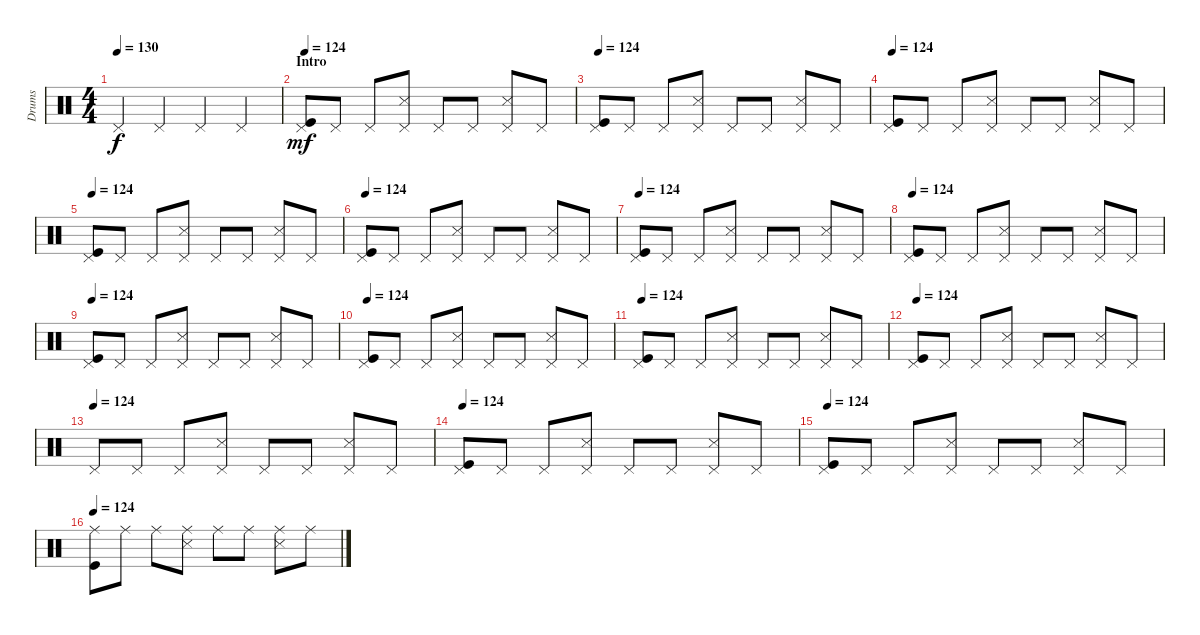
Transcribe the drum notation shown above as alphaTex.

\track ("Drums" "Drums") {instrument percussion}
\staff {score}
\articulation defaults
\ts (4 4)
\tempo 130
\tempo 124
\tempo 130
\clef neutral
\ks c "Pedal Hi-Hat (hit)".4{dy f} "Pedal Hi-Hat (hit)".4 "Pedal Hi-Hat (hit)".4 "Pedal Hi-Hat (hit)".4
|
\section ("" "Intro")
\tempo 124
("Pedal Hi-Hat (hit)" "Kick (hit)").8{dy mf} "Pedal Hi-Hat (hit)".8 "Pedal Hi-Hat (hit)".8 ("Pedal Hi-Hat (hit)" "Snare (side stick) 3").8 "Pedal Hi-Hat (hit)".8 "Pedal Hi-Hat (hit)".8 ("Pedal Hi-Hat (hit)" "Snare (side stick) 3").8 "Pedal Hi-Hat (hit)".8 |
\tempo 124
("Pedal Hi-Hat (hit)" "Kick (hit)").8 "Pedal Hi-Hat (hit)".8 "Pedal Hi-Hat (hit)".8 ("Pedal Hi-Hat (hit)" "Snare (side stick) 3").8 "Pedal Hi-Hat (hit)".8 "Pedal Hi-Hat (hit)".8 ("Pedal Hi-Hat (hit)" "Snare (side stick) 3").8 "Pedal Hi-Hat (hit)".8 |
\tempo 124
("Pedal Hi-Hat (hit)" "Kick (hit)").8 "Pedal Hi-Hat (hit)".8 "Pedal Hi-Hat (hit)".8 ("Pedal Hi-Hat (hit)" "Snare (side stick) 3").8 "Pedal Hi-Hat (hit)".8 "Pedal Hi-Hat (hit)".8 ("Pedal Hi-Hat (hit)" "Snare (side stick) 3").8 "Pedal Hi-Hat (hit)".8 |
\tempo 124
("Pedal Hi-Hat (hit)" "Kick (hit)").8 "Pedal Hi-Hat (hit)".8 "Pedal Hi-Hat (hit)".8 ("Pedal Hi-Hat (hit)" "Snare (side stick) 3").8 "Pedal Hi-Hat (hit)".8 "Pedal Hi-Hat (hit)".8 ("Pedal Hi-Hat (hit)" "Snare (side stick) 3").8 "Pedal Hi-Hat (hit)".8 |
\tempo 124
("Pedal Hi-Hat (hit)" "Kick (hit)").8 "Pedal Hi-Hat (hit)".8 "Pedal Hi-Hat (hit)".8 ("Pedal Hi-Hat (hit)" "Snare (side stick) 3").8 "Pedal Hi-Hat (hit)".8 "Pedal Hi-Hat (hit)".8 ("Pedal Hi-Hat (hit)" "Snare (side stick) 3").8 "Pedal Hi-Hat (hit)".8 |
\tempo 124
("Pedal Hi-Hat (hit)" "Kick (hit)").8 "Pedal Hi-Hat (hit)".8 "Pedal Hi-Hat (hit)".8 ("Pedal Hi-Hat (hit)" "Snare (side stick) 3").8 "Pedal Hi-Hat (hit)".8 "Pedal Hi-Hat (hit)".8 ("Pedal Hi-Hat (hit)" "Snare (side stick) 3").8 "Pedal Hi-Hat (hit)".8 |
\tempo 124
("Pedal Hi-Hat (hit)" "Kick (hit)").8 "Pedal Hi-Hat (hit)".8 "Pedal Hi-Hat (hit)".8 ("Pedal Hi-Hat (hit)" "Snare (side stick) 3").8 "Pedal Hi-Hat (hit)".8 "Pedal Hi-Hat (hit)".8 ("Pedal Hi-Hat (hit)" "Snare (side stick) 3").8 "Pedal Hi-Hat (hit)".8 |
\tempo 124
("Pedal Hi-Hat (hit)" "Kick (hit)").8 "Pedal Hi-Hat (hit)".8 "Pedal Hi-Hat (hit)".8 ("Pedal Hi-Hat (hit)" "Snare (side stick) 3").8 "Pedal Hi-Hat (hit)".8 "Pedal Hi-Hat (hit)".8 ("Pedal Hi-Hat (hit)" "Snare (side stick) 3").8 "Pedal Hi-Hat (hit)".8 |
\tempo 124
("Pedal Hi-Hat (hit)" "Kick (hit)").8 "Pedal Hi-Hat (hit)".8 "Pedal Hi-Hat (hit)".8 ("Pedal Hi-Hat (hit)" "Snare (side stick) 3").8 "Pedal Hi-Hat (hit)".8 "Pedal Hi-Hat (hit)".8 ("Pedal Hi-Hat (hit)" "Snare (side stick) 3").8 "Pedal Hi-Hat (hit)".8 |
\tempo 124
("Pedal Hi-Hat (hit)" "Kick (hit)").8 "Pedal Hi-Hat (hit)".8 "Pedal Hi-Hat (hit)".8 ("Pedal Hi-Hat (hit)" "Snare (side stick) 3").8 "Pedal Hi-Hat (hit)".8 "Pedal Hi-Hat (hit)".8 ("Pedal Hi-Hat (hit)" "Snare (side stick) 3").8 "Pedal Hi-Hat (hit)".8 |
\tempo 124
("Pedal Hi-Hat (hit)" "Kick (hit)").8 "Pedal Hi-Hat (hit)".8 "Pedal Hi-Hat (hit)".8 ("Pedal Hi-Hat (hit)" "Snare (side stick) 3").8 "Pedal Hi-Hat (hit)".8 "Pedal Hi-Hat (hit)".8 ("Pedal Hi-Hat (hit)" "Snare (side stick) 3").8 "Pedal Hi-Hat (hit)".8 |
\tempo (124)
"Pedal Hi-Hat (hit)".8 "Pedal Hi-Hat (hit)".8 "Pedal Hi-Hat (hit)".8 ("Pedal Hi-Hat (hit)" "Snare (side stick) 3").8 "Pedal Hi-Hat (hit)".8 "Pedal Hi-Hat (hit)".8 ("Pedal Hi-Hat (hit)" "Snare (side stick) 3").8 "Pedal Hi-Hat (hit)".8 |
\tempo 124
("Pedal Hi-Hat (hit)" "Kick (hit)").8 "Pedal Hi-Hat (hit)".8 "Pedal Hi-Hat (hit)".8 ("Pedal Hi-Hat (hit)" "Snare (side stick) 3").8 "Pedal Hi-Hat (hit)".8 "Pedal Hi-Hat (hit)".8 ("Pedal Hi-Hat (hit)" "Snare (side stick) 3").8 "Pedal Hi-Hat (hit)".8 |
\tempo 124
("Pedal Hi-Hat (hit)" "Kick (hit)").8 "Pedal Hi-Hat (hit)".8 "Pedal Hi-Hat (hit)".8 ("Pedal Hi-Hat (hit)" "Snare (side stick) 3").8 "Pedal Hi-Hat (hit)".8 "Pedal Hi-Hat (hit)".8 ("Pedal Hi-Hat (hit)" "Snare (side stick) 3").8 "Pedal Hi-Hat (hit)".8 |
\tempo 124
("Ride (middle)" "Kick (hit)").8 "Ride (middle)".8 "Ride (middle)".8 ("Ride (middle)" "Snare (side stick) 3").8 "Ride (middle)".8 "Ride (middle)".8 ("Ride (middle)" "Snare (side stick) 3").8 "Ride (middle)".8
